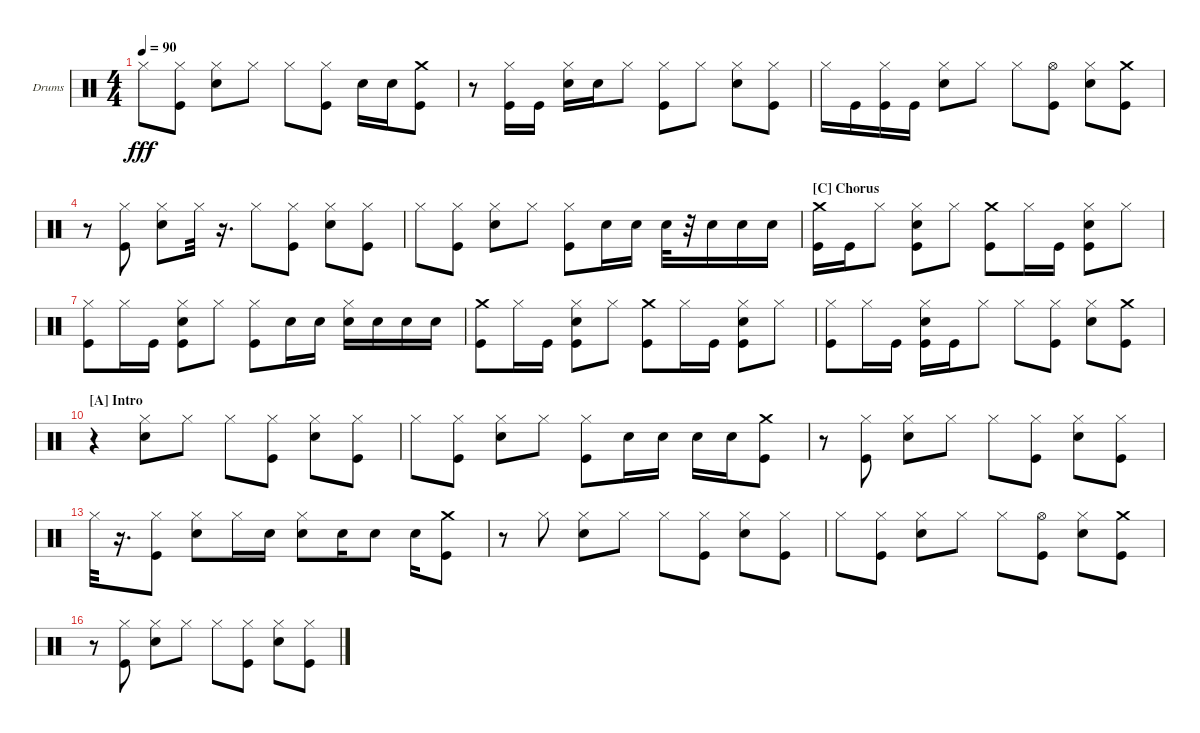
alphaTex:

\bracketExtendMode nobrackets
\firstSystemTrackNameOrientation horizontal
\otherSystemsTrackNameOrientation horizontal
\defaultBarNumberDisplay FirstOfSystem
\track ("Drums" "Drums") {instrument percussion}
\staff {score}
\articulation defaults
\ts (4 4)
\tempo 90
\clef neutral
\ks c "Hi-Hat (closed)".8{dy fff}
("Hi-Hat (closed)" "Kick (hit)").8 ("Hi-Hat (closed)" "Snare (hit) 2").8 "Hi-Hat (closed)".8 "Hi-Hat (closed)".8 ("Kick (hit)" "Hi-Hat (closed)").8 "Snare (hit) 2".16 "Snare (hit) 2".16 ("Kick (hit)" "Crash medium (hit)").8 |
r.8 ("Hi-Hat (closed)" "Kick (hit)").16 "Kick (hit)".16 ("Hi-Hat (closed)" "Snare (hit) 2").16 "Snare (hit) 2".16 "Hi-Hat (closed)".8 ("Hi-Hat (closed)" "Kick (hit)").8 "Hi-Hat (closed)".8 ("Hi-Hat (closed)" "Snare (hit) 2").8 ("Hi-Hat (closed)" "Kick (hit)").8 |
"Hi-Hat (closed)".16 "Kick (hit)".16 ("Hi-Hat (closed)" "Kick (hit)").16 "Kick (hit)".16 ("Hi-Hat (closed)" "Snare (hit) 2").8 "Hi-Hat (closed)".8 "Hi-Hat (closed)".8 ("Kick (hit)" "Hi-Hat (open)").8 ("Snare (hit) 2" "Hi-Hat (closed)").8 ("Kick (hit)" "Crash medium (hit)").8 |
r.8 ("Hi-Hat (closed)" "Kick (hit)").8 ("Snare (hit) 2" "Hi-Hat (closed)").8 "Hi-Hat (closed)".32 r.16{d} "Hi-Hat (closed)".8 ("Kick (hit)" "Hi-Hat (closed)").8 ("Snare (hit) 2" "Hi-Hat (closed)").8 ("Kick (hit)" "Hi-Hat (closed)").8 |
"Hi-Hat (closed)".8 ("Hi-Hat (closed)" "Kick (hit)").8 ("Hi-Hat (closed)" "Snare (hit) 2").8 "Hi-Hat (closed)".8 ("Hi-Hat (closed)" "Kick (hit)").8 "Snare (hit) 2".16 "Snare (hit) 2".16 "Snare (hit) 2".32 r.32 "Snare (hit) 2".16 "Snare (hit) 2".16 "Snare (hit) 2".16 |
\section ("C" "Chorus")
("Kick (hit)" "Crash medium (hit)").16 "Kick (hit)".16 "Hi-Hat (closed)".8 ("Snare (hit) 2" "Hi-Hat (closed)" "Kick (hit)").8 "Hi-Hat (closed)".8 ("Kick (hit)" "Crash medium (hit)").8 "Hi-Hat (closed)".16 "Kick (hit)".16 ("Kick (hit)" "Hi-Hat (closed)" "Snare (hit) 2").8 "Hi-Hat (closed)".8 |
("Kick (hit)" "Hi-Hat (closed)").8 "Hi-Hat (closed)".16 "Kick (hit)".16 ("Kick (hit)" "Snare (hit) 2" "Hi-Hat (closed)").8 "Hi-Hat (closed)".8 ("Kick (hit)" "Hi-Hat (closed)").8 "Snare (hit) 2".16 "Snare (hit) 2".16 ("Hi-Hat (closed)" "Snare (hit) 2").16 "Snare (hit) 2".16 "Snare (hit) 2".16 "Snare (hit) 2".16 |
("Kick (hit)" "Crash medium (hit)").8 "Hi-Hat (closed)".16 "Kick (hit)".16 ("Snare (hit) 2" "Hi-Hat (closed)" "Kick (hit)").8 "Hi-Hat (closed)".8 ("Kick (hit)" "Crash medium (hit)").8 "Hi-Hat (closed)".16 "Kick (hit)".16 ("Kick (hit)" "Hi-Hat (closed)" "Snare (hit) 2").8 "Hi-Hat (closed)".8 |
("Kick (hit)" "Hi-Hat (closed)").8 "Hi-Hat (closed)".16 "Kick (hit)".16 ("Kick (hit)" "Hi-Hat (closed)" "Snare (hit) 2").16 "Kick (hit)".16 "Hi-Hat (closed)".8 "Hi-Hat (closed)".8 ("Kick (hit)" "Hi-Hat (closed)").8 ("Hi-Hat (closed)" "Snare (hit) 2").8 ("Kick (hit)" "Crash medium (hit)").8 |
\section ("A" "Intro")
r.4 ("Hi-Hat (closed)" "Snare (hit) 2").8 "Hi-Hat (closed)".8 "Hi-Hat (closed)".8 ("Kick (hit)" "Hi-Hat (closed)").8 ("Hi-Hat (closed)" "Snare (hit) 2").8 ("Hi-Hat (closed)" "Kick (hit)").8 |
"Hi-Hat (closed)".8 ("Kick (hit)" "Hi-Hat (closed)").8 ("Hi-Hat (closed)" "Snare (hit) 2").8 "Hi-Hat (closed)".8 ("Hi-Hat (closed)" "Kick (hit)").8 "Snare (hit) 2".16 "Snare (hit) 2".16 "Snare (hit) 2".16 "Snare (hit) 2".16 ("Kick (hit)" "Crash medium (hit)").8 |
r.8 ("Kick (hit)" "Hi-Hat (closed)").8 ("Hi-Hat (closed)" "Snare (hit) 2").8 "Hi-Hat (closed)".8 "Hi-Hat (closed)".8 ("Kick (hit)" "Hi-Hat (closed)").8 ("Snare (hit) 2" "Hi-Hat (closed)").8 ("Kick (hit)" "Hi-Hat (closed)").8 |
"Hi-Hat (closed)".32 r.16{d} ("Hi-Hat (closed)" "Kick (hit)").8 ("Snare (hit) 2" "Hi-Hat (closed)").8 "Hi-Hat (closed)".16 "Snare (hit) 2".16 ("Hi-Hat (closed)" "Snare (hit) 2").8 "Snare (hit) 2".16 "Snare (hit) 2".8 "Snare (hit) 2".16 ("Crash medium (hit)" "Kick (hit)").8 |
r.8 "Hi-Hat (closed)".8 ("Hi-Hat (closed)" "Snare (hit) 2").8 "Hi-Hat (closed)".8 "Hi-Hat (closed)".8 ("Kick (hit)" "Hi-Hat (closed)").8 ("Snare (hit) 2" "Hi-Hat (closed)").8 ("Hi-Hat (closed)" "Kick (hit)").8 |
"Hi-Hat (closed)".8 ("Hi-Hat (closed)" "Kick (hit)").8 ("Hi-Hat (closed)" "Snare (hit) 2").8 "Hi-Hat (closed)".8 "Hi-Hat (closed)".8 ("Hi-Hat (open)" "Kick (hit)").8 ("Hi-Hat (closed)" "Snare (hit) 2").8 ("Crash medium (hit)" "Kick (hit)").8 |
r.8 ("Kick (hit)" "Hi-Hat (closed)").8 ("Hi-Hat (closed)" "Snare (hit) 2").8 "Hi-Hat (closed)".8 "Hi-Hat (closed)".8 ("Hi-Hat (closed)" "Kick (hit)").8 ("Hi-Hat (closed)" "Snare (hit) 2").8 ("Hi-Hat (closed)" "Kick (hit)").8
